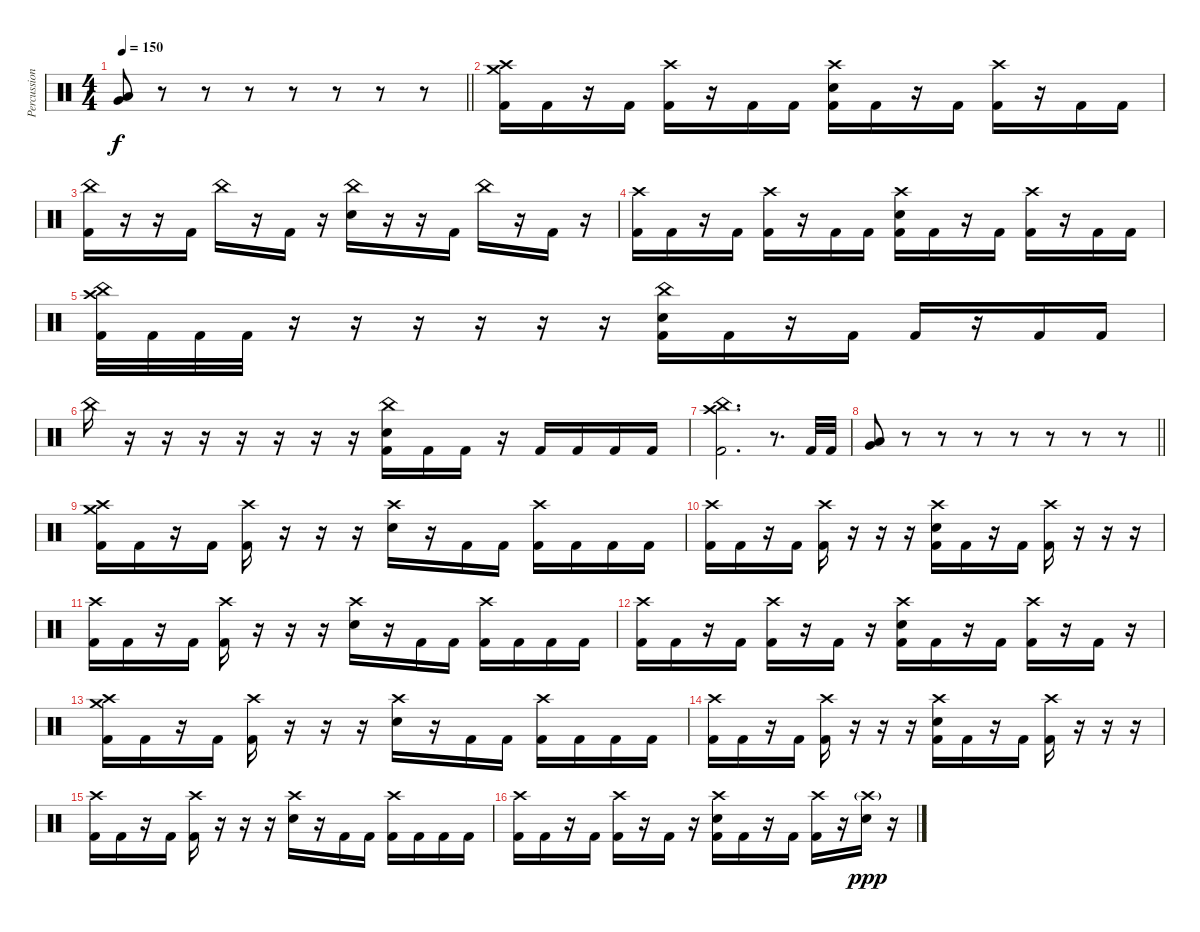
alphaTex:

\track ("Percussion" "Percussion") {instrument percussion}
\staff {score}
\articulation defaults
\ts (4 4)
\tempo 150
\clef neutral
\barLineRight lightlight
\ks c
("Low Tom (hit)" "Very Low Tom (hit)").8{dy f} r.8 r.8 r.8 r.8 r.8 r.8 r.8 |
\section ("" "")
("Crash high (hit)" "Crash medium (hit)" "Kick (hit) 2").16 "Kick (hit) 2".16 r.16 "Kick (hit) 2".16 ("Crash high (hit)" "Kick (hit) 2").16 r.16 "Kick (hit) 2".16 "Kick (hit) 2".16 ("Crash high (hit)" "Snare (hit) 2" "Kick (hit) 2").16 "Kick (hit) 2".16 r.16 "Kick (hit) 2".16 ("Crash high (hit)" "Kick (hit) 2").16 r.16 "Kick (hit) 2".16 "Kick (hit) 2".16 |
("China (hit)" "Kick (hit) 2").16 r.16 r.16 "Kick (hit) 2".16 "China (hit)".16 r.16 "Kick (hit) 2".16 r.16 ("China (hit)" "Snare (hit) 2").16 r.16 r.16 "Kick (hit) 2".16 "China (hit)".16 r.16 "Kick (hit) 2".16 r.16 |
("Crash high (hit)" "Kick (hit) 2").16 "Kick (hit) 2".16 r.16 "Kick (hit) 2".16 ("Crash high (hit)" "Kick (hit) 2").16 r.16 "Kick (hit) 2".16 "Kick (hit) 2".16 ("Crash high (hit)" "Snare (hit) 2" "Kick (hit) 2").16 "Kick (hit) 2".16 r.16 "Kick (hit) 2".16 ("Crash high (hit)" "Kick (hit) 2").16 r.16 "Kick (hit) 2".16 "Kick (hit) 2".16 |
("China (hit)" "Crash high (hit)" "Kick (hit) 2").32 "Kick (hit) 2".32 "Kick (hit) 2".32 "Kick (hit) 2".32 r.16 r.16 r.16 r.16 r.16 r.16 ("China (hit)" "Snare (hit) 2" "Kick (hit) 2").16 "Kick (hit) 2".16 r.16 "Kick (hit) 2".16 "Kick (hit) 2".16 r.16 "Kick (hit) 2".16 "Kick (hit) 2".16 |
"China (hit)".16 r.16 r.16 r.16 r.16 r.16 r.16 r.16 ("China (hit)" "Snare (hit) 2" "Kick (hit) 2").16 "Kick (hit) 2".16 "Kick (hit) 2".16 r.16 "Kick (hit) 2".16 "Kick (hit) 2".16 "Kick (hit) 2".16 "Kick (hit) 2".16 |
("Crash high (hit)" "China (hit)" "Kick (hit) 2").2{d} r.8{d} "Kick (hit) 2".32 "Kick (hit) 2".32 |
\barLineRight lightlight
("Low Tom (hit)" "Very Low Tom (hit)").8 r.8 r.8 r.8 r.8 r.8 r.8 r.8 |
("Crash high (hit)" "Crash medium (hit)" "Kick (hit) 2").16 "Kick (hit) 2".16 r.16 "Kick (hit) 2".16 ("Crash high (hit)" "Kick (hit) 2").16 r.16 r.16 r.16 ("Crash high (hit)" "Snare (hit) 2").16 r.16 "Kick (hit) 2".16 "Kick (hit) 2".16 ("Crash high (hit)" "Kick (hit) 2").16 "Kick (hit) 2".16 "Kick (hit) 2".16 "Kick (hit) 2".16 |
("Crash high (hit)" "Kick (hit) 2").16 "Kick (hit) 2".16 r.16 "Kick (hit) 2".16 ("Crash high (hit)" "Kick (hit) 2").16 r.16 r.16 r.16 ("Crash high (hit)" "Snare (hit) 2" "Kick (hit) 2").16 "Kick (hit) 2".16 r.16 "Kick (hit) 2".16 ("Crash high (hit)" "Kick (hit) 2").16 r.16 r.16 r.16 |
("Crash high (hit)" "Kick (hit) 2").16 "Kick (hit) 2".16 r.16 "Kick (hit) 2".16 ("Crash high (hit)" "Kick (hit) 2").16 r.16 r.16 r.16 ("Crash high (hit)" "Snare (hit) 2").16 r.16 "Kick (hit) 2".16 "Kick (hit) 2".16 ("Crash high (hit)" "Kick (hit) 2").16 "Kick (hit) 2".16 "Kick (hit) 2".16 "Kick (hit) 2".16 |
("Crash high (hit)" "Kick (hit) 2").16 "Kick (hit) 2".16 r.16 "Kick (hit) 2".16 ("Crash high (hit)" "Kick (hit) 2").16 r.16 "Kick (hit) 2".16 r.16 ("Crash high (hit)" "Snare (hit) 2" "Kick (hit) 2").16 "Kick (hit) 2".16 r.16 "Kick (hit) 2".16 ("Crash high (hit)" "Kick (hit) 2").16 r.16 "Kick (hit) 2".16 r.16 |
("Crash high (hit)" "Crash medium (hit)" "Kick (hit) 2").16 "Kick (hit) 2".16 r.16 "Kick (hit) 2".16 ("Crash high (hit)" "Kick (hit) 2").16 r.16 r.16 r.16 ("Crash high (hit)" "Snare (hit) 2").16 r.16 "Kick (hit) 2".16 "Kick (hit) 2".16 ("Crash high (hit)" "Kick (hit) 2").16 "Kick (hit) 2".16 "Kick (hit) 2".16 "Kick (hit) 2".16 |
("Crash high (hit)" "Kick (hit) 2").16 "Kick (hit) 2".16 r.16 "Kick (hit) 2".16 ("Crash high (hit)" "Kick (hit) 2").16 r.16 r.16 r.16 ("Crash high (hit)" "Snare (hit) 2" "Kick (hit) 2").16 "Kick (hit) 2".16 r.16 "Kick (hit) 2".16 ("Crash high (hit)" "Kick (hit) 2").16 r.16 r.16 r.16 |
("Crash high (hit)" "Kick (hit) 2").16 "Kick (hit) 2".16 r.16 "Kick (hit) 2".16 ("Crash high (hit)" "Kick (hit) 2").16 r.16 r.16 r.16 ("Crash high (hit)" "Snare (hit) 2").16 r.16 "Kick (hit) 2".16 "Kick (hit) 2".16 ("Crash high (hit)" "Kick (hit) 2").16 "Kick (hit) 2".16 "Kick (hit) 2".16 "Kick (hit) 2".16 |
("Crash high (hit)" "Kick (hit) 2").16 "Kick (hit) 2".16 r.16 "Kick (hit) 2".16 ("Crash high (hit)" "Kick (hit) 2").16 r.16 "Kick (hit) 2".16 r.16 ("Crash high (hit)" "Snare (hit) 2" "Kick (hit) 2").16 "Kick (hit) 2".16 r.16 "Kick (hit) 2".16 ("Crash high (hit)" "Kick (hit) 2").16 r.16 ("Crash high (hit)"{g} "Snare (hit) 2").16{dy ppp} r.16
